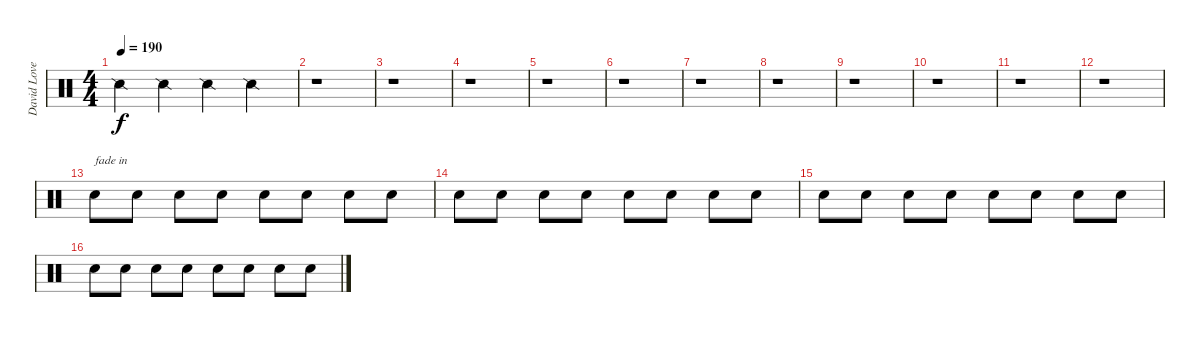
\track ("David Lovering" "David Love") {instrument percussion}
\staff {score}
\articulation defaults
\ts (4 4)
\tempo 190
\clef neutral
\ks c "Snare (side stick) 2".4{dy f} "Snare (side stick) 2".4 "Snare (side stick) 2".4 "Snare (side stick) 2".4
|
r.1 |
r.1 |
r.1 |
r.1 |
r.1 |
r.1 |
r.1 |
r.1 |
r.1 |
r.1 |
r.1{volume 0} |
"Electric Snare (hit)".8{txt "fade in" volume 13} "Electric Snare (hit)".8 "Electric Snare (hit)".8 "Electric Snare (hit)".8 "Electric Snare (hit)".8 "Electric Snare (hit)".8 "Electric Snare (hit)".8 "Electric Snare (hit)".8 |
"Electric Snare (hit)".8 "Electric Snare (hit)".8 "Electric Snare (hit)".8 "Electric Snare (hit)".8 "Electric Snare (hit)".8 "Electric Snare (hit)".8 "Electric Snare (hit)".8 "Electric Snare (hit)".8 |
"Electric Snare (hit)".8 "Electric Snare (hit)".8 "Electric Snare (hit)".8 "Electric Snare (hit)".8 "Electric Snare (hit)".8 "Electric Snare (hit)".8 "Electric Snare (hit)".8 "Electric Snare (hit)".8 |
"Electric Snare (hit)".8 "Electric Snare (hit)".8 "Electric Snare (hit)".8 "Electric Snare (hit)".8 "Electric Snare (hit)".8 "Electric Snare (hit)".8 "Electric Snare (hit)".8 "Electric Snare (hit)".8
